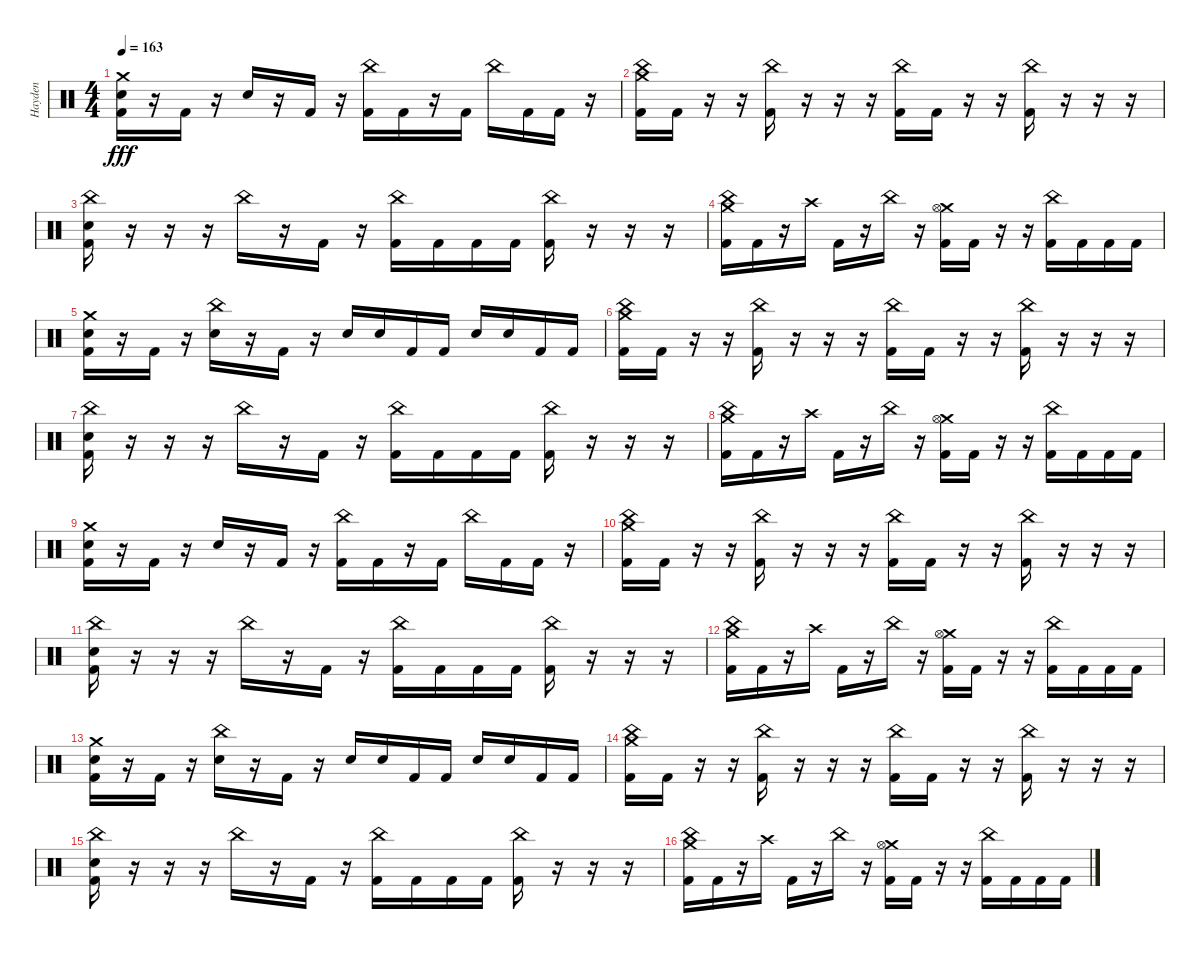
\track ("Hayden" "Hayden") {instrument percussion}
\staff {score}
\articulation defaults
\ts (4 4)
\tempo 163
\clef neutral
\ks c
("Crash medium (hit)" "Snare (hit) 2" "Kick (hit) 2").16{dy fff} r.16 "Kick (hit) 2".16 r.16 "Electric Snare (hit)".16 r.16 "Kick (hit) 2".16 r.16 ("China (hit)" "Kick (hit) 2").16 "Kick (hit) 2".16 r.16 "Kick (hit) 2".16 "China (hit)".16 "Kick (hit) 2".16 "Kick (hit) 2".16 r.16 |
("Crash medium (hit)" "China (hit)" "Kick (hit) 2").16 "Kick (hit) 2".16 r.16 r.16 ("China (hit)" "Kick (hit) 2").16 r.16 r.16 r.16 ("China (hit)" "Kick (hit) 2").16 "Kick (hit) 2".16 r.16 r.16 ("China (hit)" "Kick (hit) 2").16 r.16 r.16 r.16 |
("China (hit)" "Snare (hit) 2" "Kick (hit) 2").16 r.16 r.16 r.16 "China (hit)".16 r.16 "Kick (hit) 2".16 r.16 ("China (hit)" "Kick (hit) 2").16 "Kick (hit) 2".16 "Kick (hit) 2".16 "Kick (hit) 2".16 ("China (hit)" "Kick (hit) 2").16 r.16 r.16 r.16 |
("Crash medium (hit)" "China (hit)" "Kick (hit) 2").16 "Kick (hit) 2".16 r.16 "Crash high (hit)".16 "Kick (hit) 2".16 r.16 "China (hit)".16 r.16 ("Crash medium (hit)" "Hi-Hat (open)" "Kick (hit) 2").16 "Kick (hit) 2".16 r.16 r.16 ("China (hit)" "Kick (hit) 2").16 "Kick (hit) 2".16 "Kick (hit) 2".16 "Kick (hit) 2".16 |
("Crash medium (hit)" "Electric Snare (hit)" "Kick (hit) 2").16 r.16 "Kick (hit) 2".16 r.16 ("China (hit)" "Electric Snare (hit)").16 r.16 "Kick (hit) 2".16 r.16 "Electric Snare (hit)".16 "Electric Snare (hit)".16 "Kick (hit) 2".16 "Kick (hit) 2".16 "Electric Snare (hit)".16 "Electric Snare (hit)".16 "Kick (hit) 2".16 "Kick (hit) 2".16 |
("Crash medium (hit)" "China (hit)" "Kick (hit) 2").16 "Kick (hit) 2".16 r.16 r.16 ("China (hit)" "Kick (hit) 2").16 r.16 r.16 r.16 ("China (hit)" "Kick (hit) 2").16 "Kick (hit) 2".16 r.16 r.16 ("China (hit)" "Kick (hit) 2").16 r.16 r.16 r.16 |
("China (hit)" "Snare (hit) 2" "Kick (hit) 2").16 r.16 r.16 r.16 "China (hit)".16 r.16 "Kick (hit) 2".16 r.16 ("China (hit)" "Kick (hit) 2").16 "Kick (hit) 2".16 "Kick (hit) 2".16 "Kick (hit) 2".16 ("China (hit)" "Kick (hit) 2").16 r.16 r.16 r.16 |
("Crash medium (hit)" "China (hit)" "Kick (hit) 2").16 "Kick (hit) 2".16 r.16 "Crash high (hit)".16 "Kick (hit) 2".16 r.16 "China (hit)".16 r.16 ("Crash medium (hit)" "Hi-Hat (open)" "Kick (hit) 2").16 "Kick (hit) 2".16 r.16 r.16 ("China (hit)" "Kick (hit) 2").16 "Kick (hit) 2".16 "Kick (hit) 2".16 "Kick (hit) 2".16 |
("Crash medium (hit)" "Snare (hit) 2" "Kick (hit) 2").16 r.16 "Kick (hit) 2".16 r.16 "Electric Snare (hit)".16 r.16 "Kick (hit) 2".16 r.16 ("China (hit)" "Kick (hit) 2").16 "Kick (hit) 2".16 r.16 "Kick (hit) 2".16 "China (hit)".16 "Kick (hit) 2".16 "Kick (hit) 2".16 r.16 |
("Crash medium (hit)" "China (hit)" "Kick (hit) 2").16 "Kick (hit) 2".16 r.16 r.16 ("China (hit)" "Kick (hit) 2").16 r.16 r.16 r.16 ("China (hit)" "Kick (hit) 2").16 "Kick (hit) 2".16 r.16 r.16 ("China (hit)" "Kick (hit) 2").16 r.16 r.16 r.16 |
("China (hit)" "Snare (hit) 2" "Kick (hit) 2").16 r.16 r.16 r.16 "China (hit)".16 r.16 "Kick (hit) 2".16 r.16 ("China (hit)" "Kick (hit) 2").16 "Kick (hit) 2".16 "Kick (hit) 2".16 "Kick (hit) 2".16 ("China (hit)" "Kick (hit) 2").16 r.16 r.16 r.16 |
("Crash medium (hit)" "China (hit)" "Kick (hit) 2").16 "Kick (hit) 2".16 r.16 "Crash high (hit)".16 "Kick (hit) 2".16 r.16 "China (hit)".16 r.16 ("Crash medium (hit)" "Hi-Hat (open)" "Kick (hit) 2").16 "Kick (hit) 2".16 r.16 r.16 ("China (hit)" "Kick (hit) 2").16 "Kick (hit) 2".16 "Kick (hit) 2".16 "Kick (hit) 2".16 |
("Crash medium (hit)" "Electric Snare (hit)" "Kick (hit) 2").16 r.16 "Kick (hit) 2".16 r.16 ("China (hit)" "Electric Snare (hit)").16 r.16 "Kick (hit) 2".16 r.16 "Electric Snare (hit)".16 "Electric Snare (hit)".16 "Kick (hit) 2".16 "Kick (hit) 2".16 "Electric Snare (hit)".16 "Electric Snare (hit)".16 "Kick (hit) 2".16 "Kick (hit) 2".16 |
("Crash medium (hit)" "China (hit)" "Kick (hit) 2").16 "Kick (hit) 2".16 r.16 r.16 ("China (hit)" "Kick (hit) 2").16 r.16 r.16 r.16 ("China (hit)" "Kick (hit) 2").16 "Kick (hit) 2".16 r.16 r.16 ("China (hit)" "Kick (hit) 2").16 r.16 r.16 r.16 |
("China (hit)" "Snare (hit) 2" "Kick (hit) 2").16 r.16 r.16 r.16 "China (hit)".16 r.16 "Kick (hit) 2".16 r.16 ("China (hit)" "Kick (hit) 2").16 "Kick (hit) 2".16 "Kick (hit) 2".16 "Kick (hit) 2".16 ("China (hit)" "Kick (hit) 2").16 r.16 r.16 r.16 |
("Crash medium (hit)" "China (hit)" "Kick (hit) 2").16 "Kick (hit) 2".16 r.16 "Crash high (hit)".16 "Kick (hit) 2".16 r.16 "China (hit)".16 r.16 ("Crash medium (hit)" "Hi-Hat (open)" "Kick (hit) 2").16 "Kick (hit) 2".16 r.16 r.16 ("China (hit)" "Kick (hit) 2").16 "Kick (hit) 2".16 "Kick (hit) 2".16 "Kick (hit) 2".16
